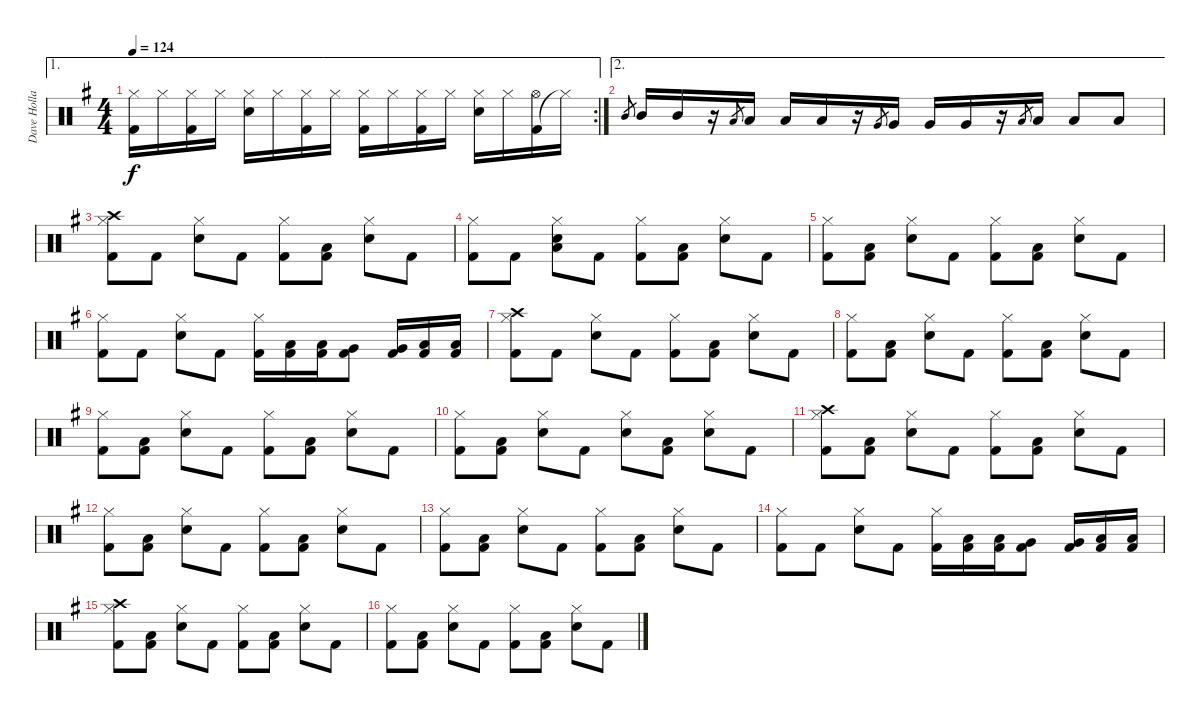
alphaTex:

\track ("Dave Holland" "Dave Holla") {instrument percussion}
\staff {score}
\articulation defaults
\ae 1
\rc 2
\ts (4 4)
\tempo 124
\clef neutral
\ks g
("Kick (hit) 2" "Hi-Hat (closed)").16{dy f} "Hi-Hat (closed)".16 ("Kick (hit) 2" "Hi-Hat (closed)").16 "Hi-Hat (closed)".16 ("Snare (hit) 2" "Hi-Hat (closed)").16 "Hi-Hat (closed)".16 ("Kick (hit) 2" "Hi-Hat (closed)").16 "Hi-Hat (closed)".16 ("Kick (hit) 2" "Hi-Hat (closed)").16 "Hi-Hat (closed)".16 ("Kick (hit) 2" "Hi-Hat (closed)").16 "Hi-Hat (closed)".16 ("Snare (hit) 2" "Hi-Hat (closed)").16 "Hi-Hat (closed)".16 ("Kick (hit) 2" "Hi-Hat (open)").16 "Hi-Hat (closed)"{t}.16 |
\ae 2 "Mid Tom (hit)".8{gr} "Mid Tom (hit)".16 "Mid Tom (hit)".16
r.16 "Low Tom (hit)".8{gr} "Low Tom (hit)".16 "Low Tom (hit)".16 "Low Tom (hit)".16 r.16 "Very Low Tom (hit)".8{gr} "Very Low Tom (hit)".16 "Very Low Tom (hit)".16 "Very Low Tom (hit)".16 r.16 "Low Floor Tom (hit)".8{gr} "Low Floor Tom (hit)".16 "Low Floor Tom (hit)".8 "Low Floor Tom (hit)".8 |
("Kick (hit) 2" "Crash high (hit)" "Hi-Hat (closed)").8 "Kick (hit) 2".8 ("Snare (hit) 2" "Hi-Hat (closed)").8 "Kick (hit) 2".8 ("Kick (hit) 2" "Hi-Hat (closed)").8 ("Kick (hit) 2" "Low Tom (hit)").8 ("Snare (hit) 2" "Hi-Hat (closed)").8 "Kick (hit) 2".8 |
("Kick (hit) 2" "Hi-Hat (closed)").8 "Kick (hit) 2".8 ("Snare (hit) 2" "Low Tom (hit)" "Hi-Hat (closed)").8 "Kick (hit) 2".8 ("Kick (hit) 2" "Hi-Hat (closed)").8 ("Kick (hit) 2" "Low Tom (hit)").8 ("Snare (hit) 2" "Hi-Hat (closed)").8 "Kick (hit) 2".8 |
("Kick (hit) 2" "Hi-Hat (closed)").8 ("Kick (hit) 2" "Low Tom (hit)").8 ("Snare (hit) 2" "Hi-Hat (closed)").8 "Kick (hit) 2".8 ("Kick (hit) 2" "Hi-Hat (closed)").8 ("Kick (hit) 2" "Low Tom (hit)").8 ("Snare (hit) 2" "Hi-Hat (closed)").8 "Kick (hit) 2".8 |
("Kick (hit) 2" "Hi-Hat (closed)").8 "Kick (hit) 2".8 ("Snare (hit) 2" "Hi-Hat (closed)").8 "Kick (hit) 2".8 ("Kick (hit) 2" "Hi-Hat (closed)").16 ("Kick (hit) 2" "Low Tom (hit)").16 ("Kick (hit) 2" "Low Tom (hit)").16 ("Kick (hit) 2" "Very Low Tom (hit)").8 ("Kick (hit) 2" "Very Low Tom (hit)").16 ("Kick (hit) 2" "Low Floor Tom (hit)").16 ("Kick (hit) 2" "Low Floor Tom (hit)").16 |
("Kick (hit) 2" "Crash high (hit)" "Hi-Hat (closed)").8 "Kick (hit) 2".8 ("Snare (hit) 2" "Hi-Hat (closed)").8 "Kick (hit) 2".8 ("Kick (hit) 2" "Hi-Hat (closed)").8 ("Kick (hit) 2" "Low Tom (hit)").8 ("Snare (hit) 2" "Hi-Hat (closed)").8 "Kick (hit) 2".8 |
("Kick (hit) 2" "Hi-Hat (closed)").8 ("Kick (hit) 2" "Low Tom (hit)").8 ("Snare (hit) 2" "Hi-Hat (closed)").8 "Kick (hit) 2".8 ("Kick (hit) 2" "Hi-Hat (closed)").8 ("Kick (hit) 2" "Low Tom (hit)").8 ("Snare (hit) 2" "Hi-Hat (closed)").8 "Kick (hit) 2".8 |
("Kick (hit) 2" "Hi-Hat (closed)").8 ("Kick (hit) 2" "Low Tom (hit)").8 ("Snare (hit) 2" "Hi-Hat (closed)").8 "Kick (hit) 2".8 ("Kick (hit) 2" "Hi-Hat (closed)").8 ("Kick (hit) 2" "Low Tom (hit)").8 ("Snare (hit) 2" "Hi-Hat (closed)").8 "Kick (hit) 2".8 |
("Kick (hit) 2" "Hi-Hat (closed)").8 ("Kick (hit) 2" "Low Tom (hit)").8 ("Snare (hit) 2" "Hi-Hat (closed)").8 "Kick (hit) 2".8 ("Snare (hit) 2" "Hi-Hat (closed)").8 ("Kick (hit) 2" "Low Tom (hit)").8 ("Snare (hit) 2" "Hi-Hat (closed)").8 "Kick (hit) 2".8 |
("Kick (hit) 2" "Crash high (hit)" "Hi-Hat (closed)").8 ("Kick (hit) 2" "Low Tom (hit)").8 ("Snare (hit) 2" "Hi-Hat (closed)").8 "Kick (hit) 2".8 ("Kick (hit) 2" "Hi-Hat (closed)").8 ("Kick (hit) 2" "Low Tom (hit)").8 ("Snare (hit) 2" "Hi-Hat (closed)").8 "Kick (hit) 2".8 |
("Kick (hit) 2" "Hi-Hat (closed)").8 ("Kick (hit) 2" "Low Tom (hit)").8 ("Snare (hit) 2" "Hi-Hat (closed)").8 "Kick (hit) 2".8 ("Kick (hit) 2" "Hi-Hat (closed)").8 ("Kick (hit) 2" "Low Tom (hit)").8 ("Snare (hit) 2" "Hi-Hat (closed)").8 "Kick (hit) 2".8 |
("Kick (hit) 2" "Hi-Hat (closed)").8 ("Kick (hit) 2" "Low Tom (hit)").8 ("Snare (hit) 2" "Hi-Hat (closed)").8 "Kick (hit) 2".8 ("Kick (hit) 2" "Hi-Hat (closed)").8 ("Kick (hit) 2" "Low Tom (hit)").8 ("Snare (hit) 2" "Hi-Hat (closed)").8 "Kick (hit) 2".8 |
("Kick (hit) 2" "Hi-Hat (closed)").8 "Kick (hit) 2".8 ("Snare (hit) 2" "Hi-Hat (closed)").8 "Kick (hit) 2".8 ("Kick (hit) 2" "Hi-Hat (closed)").16 ("Kick (hit) 2" "Low Tom (hit)").16 ("Kick (hit) 2" "Low Tom (hit)").16 ("Kick (hit) 2" "Very Low Tom (hit)").8 ("Kick (hit) 2" "Very Low Tom (hit)").16 ("Kick (hit) 2" "Low Floor Tom (hit)").16 ("Kick (hit) 2" "Low Floor Tom (hit)").16 |
("Kick (hit) 2" "Crash high (hit)" "Hi-Hat (closed)").8 ("Kick (hit) 2" "Low Tom (hit)").8 ("Snare (hit) 2" "Hi-Hat (closed)").8 "Kick (hit) 2".8 ("Kick (hit) 2" "Hi-Hat (closed)").8 ("Kick (hit) 2" "Low Tom (hit)").8 ("Snare (hit) 2" "Hi-Hat (closed)").8 "Kick (hit) 2".8 |
("Kick (hit) 2" "Hi-Hat (closed)").8 ("Kick (hit) 2" "Low Tom (hit)").8 ("Snare (hit) 2" "Hi-Hat (closed)").8 "Kick (hit) 2".8 ("Kick (hit) 2" "Hi-Hat (closed)").8 ("Kick (hit) 2" "Low Tom (hit)").8 ("Snare (hit) 2" "Hi-Hat (closed)").8 "Kick (hit) 2".8
